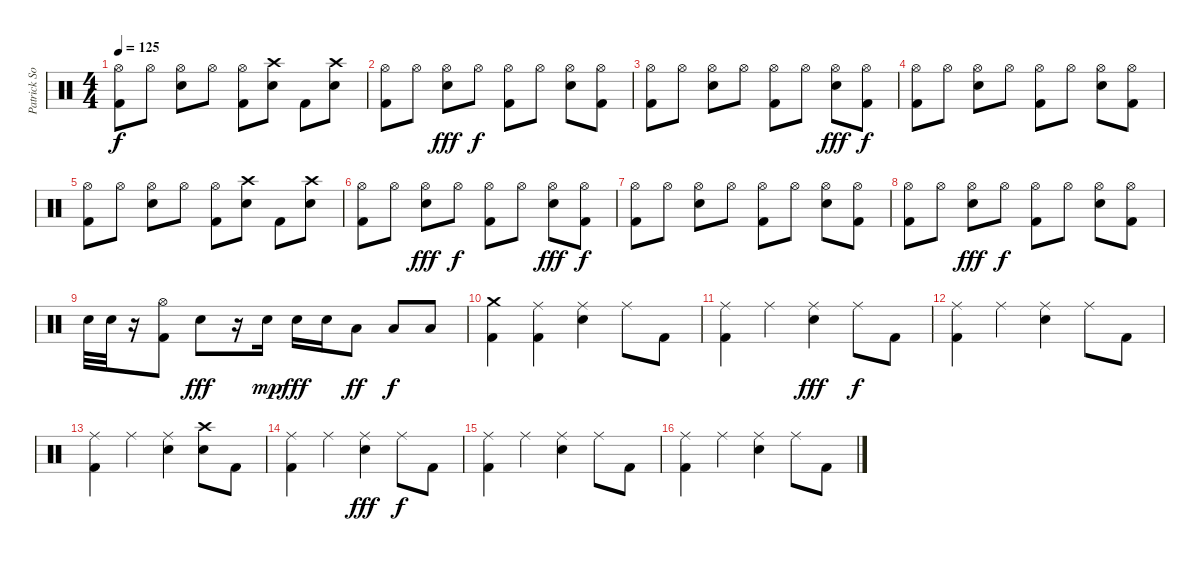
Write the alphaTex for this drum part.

\track ("Patrick Soria" "Patrick So") {instrument percussion}
\staff {score}
\articulation defaults
\ts (4 4)
\tempo 125
\clef neutral
\ks c
("Hi-Hat (open)" "Kick (hit) 2").8{dy f} "Hi-Hat (open)".8 ("Hi-Hat (open)" "Snare (hit) 2").8 "Hi-Hat (open)".8 ("Hi-Hat (open)" "Kick (hit) 2").8 ("Crash high (hit)" "Snare (hit) 2").8 "Kick (hit) 2".8 ("Crash high (hit)" "Snare (hit) 2").8 |
("Hi-Hat (open)" "Kick (hit) 2").8 "Hi-Hat (open)".8 ("Hi-Hat (open)" "Snare (hit) 2").8{dy fff} "Hi-Hat (open)".8{dy f} ("Hi-Hat (open)" "Kick (hit) 2").8 "Hi-Hat (open)".8 ("Hi-Hat (open)" "Snare (hit) 2").8 ("Hi-Hat (open)" "Kick (hit) 2").8 |
("Hi-Hat (open)" "Kick (hit) 2").8 "Hi-Hat (open)".8 ("Hi-Hat (open)" "Snare (hit) 2").8 "Hi-Hat (open)".8 ("Hi-Hat (open)" "Kick (hit) 2").8 "Hi-Hat (open)".8 ("Hi-Hat (open)" "Snare (hit) 2").8{dy fff} ("Hi-Hat (open)" "Kick (hit) 2").8{dy f} |
("Hi-Hat (open)" "Kick (hit) 2").8 "Hi-Hat (open)".8 ("Hi-Hat (open)" "Snare (hit) 2").8 "Hi-Hat (open)".8 ("Hi-Hat (open)" "Kick (hit) 2").8 "Hi-Hat (open)".8 ("Hi-Hat (open)" "Snare (hit) 2").8 ("Hi-Hat (open)" "Kick (hit) 2").8 |
("Hi-Hat (open)" "Kick (hit) 2").8 "Hi-Hat (open)".8 ("Hi-Hat (open)" "Snare (hit) 2").8 "Hi-Hat (open)".8 ("Hi-Hat (open)" "Kick (hit) 2").8 ("Crash high (hit)" "Snare (hit) 2").8 "Kick (hit) 2".8 ("Crash high (hit)" "Snare (hit) 2").8 |
("Hi-Hat (open)" "Kick (hit) 2").8 "Hi-Hat (open)".8 ("Hi-Hat (open)" "Snare (hit) 2").8{dy fff} "Hi-Hat (open)".8{dy f} ("Hi-Hat (open)" "Kick (hit) 2").8 "Hi-Hat (open)".8 ("Hi-Hat (open)" "Snare (hit) 2").8{dy fff} ("Hi-Hat (open)" "Kick (hit) 2").8{dy f} |
("Hi-Hat (open)" "Kick (hit) 2").8 "Hi-Hat (open)".8 ("Hi-Hat (open)" "Snare (hit) 2").8 "Hi-Hat (open)".8 ("Hi-Hat (open)" "Kick (hit) 2").8 "Hi-Hat (open)".8 ("Hi-Hat (open)" "Snare (hit) 2").8 ("Hi-Hat (open)" "Kick (hit) 2").8 |
("Hi-Hat (open)" "Kick (hit) 2").8 "Hi-Hat (open)".8 ("Hi-Hat (open)" "Snare (hit) 2").8{dy fff} "Hi-Hat (open)".8{dy f} ("Hi-Hat (open)" "Kick (hit) 2").8 "Hi-Hat (open)".8 ("Hi-Hat (open)" "Snare (hit) 2").8 ("Hi-Hat (open)" "Kick (hit) 2").8 |
"Snare (hit) 2".32 "Snare (hit) 2".32 r.16 ("Hi-Hat (open)" "Kick (hit) 2").8 "Snare (hit) 2".8{dy fff} r.16 "Snare (hit) 2".16{dy mp} "Snare (hit) 2".16{dy fff} "Snare (hit) 2".16 "Low Tom (hit)".8{dy ff} "Low Tom (hit)".8{dy f} "Low Floor Tom (hit)".8 |
("Crash medium (hit)" "Kick (hit) 2").4 ("Ride (middle)" "Kick (hit) 2").4 ("Ride (middle)" "Snare (hit) 2").4 "Ride (middle)".8 "Kick (hit) 2".8 |
("Ride (middle)" "Kick (hit) 2").4 "Ride (middle)".4 ("Ride (middle)" "Snare (hit) 2").4{dy fff} "Ride (middle)".8{dy f} "Kick (hit) 2".8 |
("Ride (middle)" "Kick (hit) 2").4 "Ride (middle)".4 ("Ride (middle)" "Snare (hit) 2").4 "Ride (middle)".8 "Kick (hit) 2".8 |
("Ride (middle)" "Kick (hit) 2").4 "Ride (middle)".4 ("Ride (middle)" "Snare (hit) 2").4 ("Crash high (hit)" "Snare (hit) 2").8 "Kick (hit) 2".8 |
("Ride (middle)" "Kick (hit) 2").4 "Ride (middle)".4 ("Ride (middle)" "Snare (hit) 2").4{dy fff} "Ride (middle)".8{dy f} "Kick (hit) 2".8 |
("Ride (middle)" "Kick (hit) 2").4 "Ride (middle)".4 ("Ride (middle)" "Snare (hit) 2").4 "Ride (middle)".8 "Kick (hit) 2".8 |
("Ride (middle)" "Kick (hit) 2").4 "Ride (middle)".4 ("Ride (middle)" "Snare (hit) 2").4 "Ride (middle)".8 "Kick (hit) 2".8
